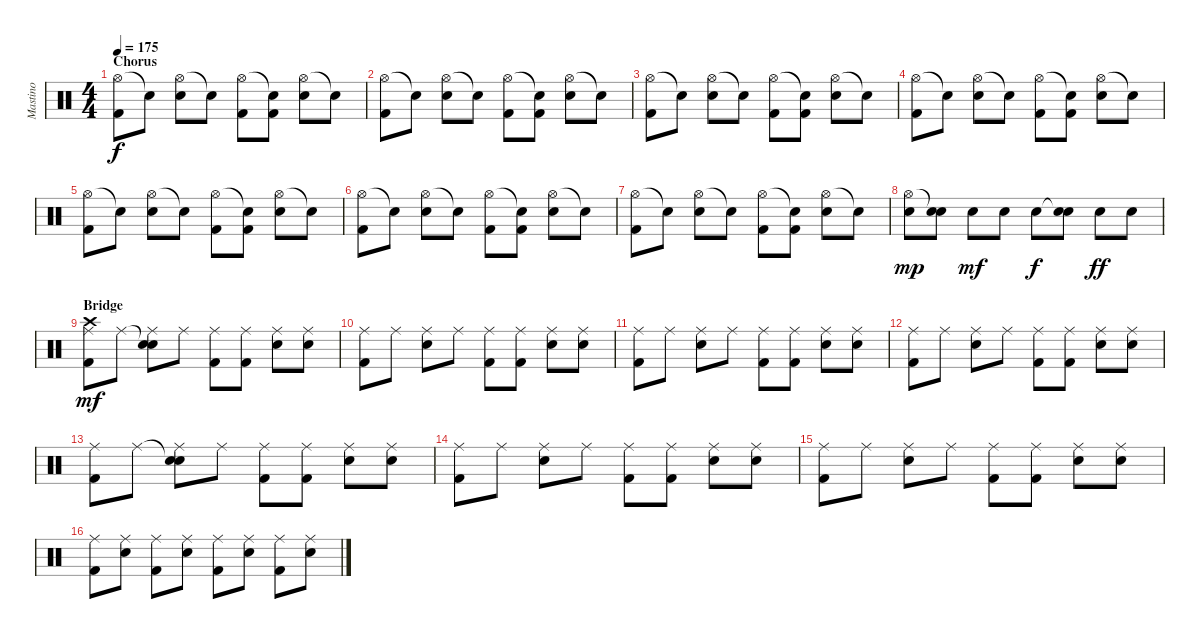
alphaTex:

\track ("Mastino" "Mastino") {instrument percussion}
\staff {score}
\articulation defaults
\ts (4 4)
\section ("" "Chorus")
\tempo 175
\clef neutral
\ks c
("Hi-Hat (open)" "Kick (hit) 2").8{dy f} "Snare (hit)"{t}.8 ("Hi-Hat (open)" "Electric Snare (hit)").8 "Snare (hit)"{t}.8 ("Hi-Hat (open)" "Kick (hit) 2").8 ("Snare (hit)"{t} "Kick (hit) 2").8 ("Hi-Hat (open)" "Electric Snare (hit)").8 "Snare (hit)"{t}.8 |
("Hi-Hat (open)" "Kick (hit) 2").8 "Snare (hit)"{t}.8 ("Hi-Hat (open)" "Electric Snare (hit)").8 "Snare (hit)"{t}.8 ("Hi-Hat (open)" "Kick (hit) 2").8 ("Snare (hit)"{t} "Kick (hit) 2").8 ("Hi-Hat (open)" "Electric Snare (hit)").8 "Snare (hit)"{t}.8 |
("Hi-Hat (open)" "Kick (hit) 2").8 "Snare (hit)"{t}.8 ("Hi-Hat (open)" "Electric Snare (hit)").8 "Snare (hit)"{t}.8 ("Hi-Hat (open)" "Kick (hit) 2").8 ("Snare (hit)"{t} "Kick (hit) 2").8 ("Hi-Hat (open)" "Electric Snare (hit)").8 "Snare (hit)"{t}.8 |
("Hi-Hat (open)" "Kick (hit) 2").8 "Snare (hit)"{t}.8 ("Hi-Hat (open)" "Electric Snare (hit)").8 "Snare (hit)"{t}.8 ("Hi-Hat (open)" "Kick (hit) 2").8 ("Snare (hit)"{t} "Kick (hit) 2").8 ("Hi-Hat (open)" "Electric Snare (hit)").8 "Snare (hit)"{t}.8 |
("Hi-Hat (open)" "Kick (hit) 2").8 "Snare (hit)"{t}.8 ("Hi-Hat (open)" "Electric Snare (hit)").8 "Snare (hit)"{t}.8 ("Hi-Hat (open)" "Kick (hit) 2").8 ("Snare (hit)"{t} "Kick (hit) 2").8 ("Hi-Hat (open)" "Electric Snare (hit)").8 "Snare (hit)"{t}.8 |
("Hi-Hat (open)" "Kick (hit) 2").8 "Snare (hit)"{t}.8 ("Hi-Hat (open)" "Electric Snare (hit)").8 "Snare (hit)"{t}.8 ("Hi-Hat (open)" "Kick (hit) 2").8 ("Snare (hit)"{t} "Kick (hit) 2").8 ("Hi-Hat (open)" "Electric Snare (hit)").8 "Snare (hit)"{t}.8 |
("Hi-Hat (open)" "Kick (hit) 2").8 "Snare (hit)"{t}.8 ("Hi-Hat (open)" "Electric Snare (hit)").8 "Snare (hit)"{t}.8 ("Hi-Hat (open)" "Kick (hit) 2").8 ("Snare (hit)"{t} "Kick (hit) 2").8 ("Hi-Hat (open)" "Electric Snare (hit)").8 "Snare (hit)"{t}.8 |
("Hi-Hat (open)" "Electric Snare (hit)").8{dy mp} ("Snare (hit)"{t} "Electric Snare (hit)").8 "Electric Snare (hit)".8{dy mf} "Electric Snare (hit)".8 "Electric Snare (hit)".8{dy f} ("Snare (hit)"{t} "Electric Snare (hit)").8 "Electric Snare (hit)".8{dy ff} "Electric Snare (hit)".8 |
\section ("" "Bridge")
("Crash high (hit)" "Ride (middle)" "Kick (hit) 2").8{dy mf} "Ride (middle)".8 ("Snare (hit)"{t} "Ride (middle)" "Electric Snare (hit)").8 "Ride (middle)".8 ("Ride (middle)" "Kick (hit) 2").8 ("Ride (middle)" "Kick (hit) 2").8 ("Ride (middle)" "Electric Snare (hit)").8 ("Ride (middle)" "Electric Snare (hit)").8 |
("Ride (middle)" "Kick (hit) 2").8 "Ride (middle)".8 ("Ride (middle)" "Electric Snare (hit)").8 "Ride (middle)".8 ("Ride (middle)" "Kick (hit) 2").8 ("Ride (middle)" "Kick (hit) 2").8 ("Ride (middle)" "Electric Snare (hit)").8 ("Ride (middle)" "Electric Snare (hit)").8 |
("Ride (middle)" "Kick (hit) 2").8 "Ride (middle)".8 ("Ride (middle)" "Electric Snare (hit)").8 "Ride (middle)".8 ("Ride (middle)" "Kick (hit) 2").8 ("Ride (middle)" "Kick (hit) 2").8 ("Ride (middle)" "Electric Snare (hit)").8 ("Ride (middle)" "Electric Snare (hit)").8 |
("Ride (middle)" "Kick (hit) 2").8 "Ride (middle)".8 ("Ride (middle)" "Electric Snare (hit)").8 "Ride (middle)".8 ("Ride (middle)" "Kick (hit) 2").8 ("Ride (middle)" "Kick (hit) 2").8 ("Ride (middle)" "Electric Snare (hit)").8 ("Ride (middle)" "Electric Snare (hit)").8 |
("Ride (middle)" "Kick (hit) 2").8 "Ride (middle)".8 ("Snare (hit)"{t} "Ride (middle)" "Electric Snare (hit)").8 "Ride (middle)".8 ("Ride (middle)" "Kick (hit) 2").8 ("Ride (middle)" "Kick (hit) 2").8 ("Ride (middle)" "Electric Snare (hit)").8 ("Ride (middle)" "Electric Snare (hit)").8 |
("Ride (middle)" "Kick (hit) 2").8 "Ride (middle)".8 ("Ride (middle)" "Electric Snare (hit)").8 "Ride (middle)".8 ("Ride (middle)" "Kick (hit) 2").8 ("Ride (middle)" "Kick (hit) 2").8 ("Ride (middle)" "Electric Snare (hit)").8 ("Ride (middle)" "Electric Snare (hit)").8 |
("Ride (middle)" "Kick (hit) 2").8 "Ride (middle)".8 ("Ride (middle)" "Electric Snare (hit)").8 "Ride (middle)".8 ("Ride (middle)" "Kick (hit) 2").8 ("Ride (middle)" "Kick (hit) 2").8 ("Ride (middle)" "Electric Snare (hit)").8 ("Ride (middle)" "Electric Snare (hit)").8 |
("Ride (middle)" "Kick (hit) 2").8 ("Ride (middle)" "Electric Snare (hit)").8 ("Ride (middle)" "Kick (hit) 2").8 ("Ride (middle)" "Electric Snare (hit)").8 ("Ride (middle)" "Kick (hit) 2").8 ("Ride (middle)" "Electric Snare (hit)").8 ("Ride (middle)" "Kick (hit) 2").8 ("Ride (middle)" "Electric Snare (hit)").8
